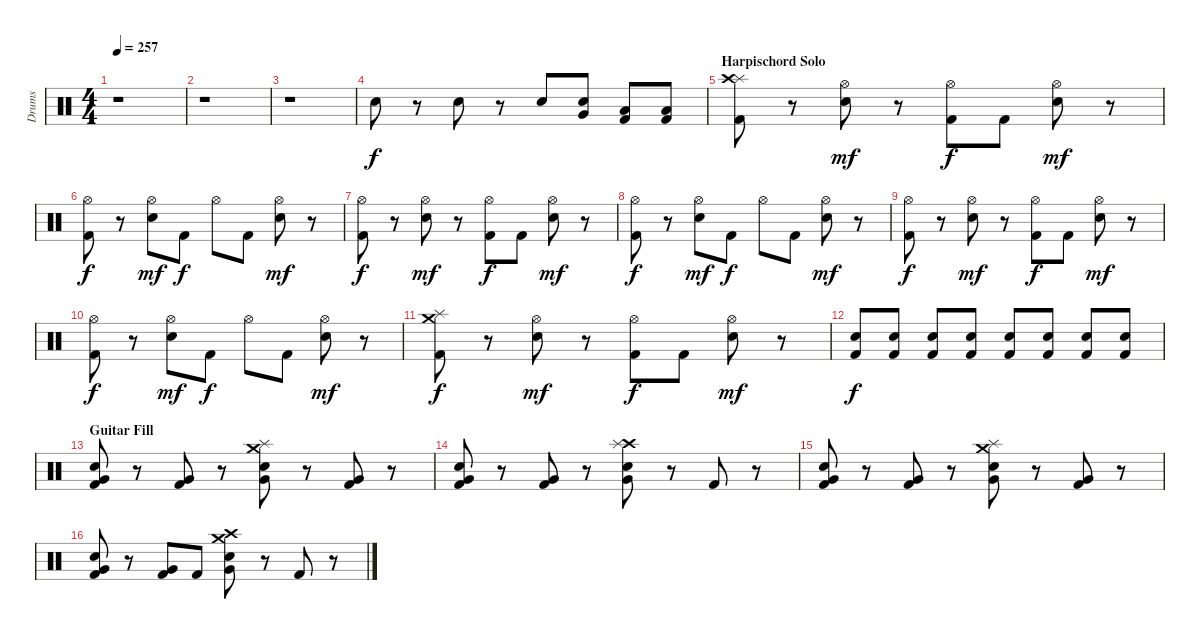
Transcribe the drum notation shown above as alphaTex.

\track ("Drums" "Drums") {instrument percussion}
\staff {score}
\articulation defaults
\ts (4 4)
\tempo 257
\clef neutral
\ks c
r.1{dy f} |
r.1 |
r.1 |
"Snare (hit) 2".8 r.8 "Snare (hit) 2".8 r.8 "Snare (hit) 2".8 ("Snare (hit) 2" "Very Low Tom (hit)").8 ("Kick (hit) 2" "Low Floor Tom (hit)").8 ("Kick (hit) 2" "Low Floor Tom (hit)").8 |
\section ("" "Harpischord Solo")
("Splash (hit)" "Crash high (hit)" "Kick (hit) 2").8 r.8 ("Snare (hit) 2" "Hi-Hat (open)").8{dy mf} r.8 ("Kick (hit) 2" "Hi-Hat (open)").8{dy f} "Kick (hit) 2".8 ("Snare (hit) 2" "Hi-Hat (open)").8{dy mf} r.8 |
("Kick (hit) 2" "Hi-Hat (open)").8{dy f} r.8 ("Snare (hit) 2" "Hi-Hat (open)").8{dy mf} "Kick (hit) 2".8{dy f} "Hi-Hat (open)".8 "Kick (hit) 2".8 ("Snare (hit) 2" "Hi-Hat (open)").8{dy mf} r.8 |
("Hi-Hat (open)" "Kick (hit) 2").8{dy f} r.8 ("Snare (hit) 2" "Hi-Hat (open)").8{dy mf} r.8 ("Kick (hit) 2" "Hi-Hat (open)").8{dy f} "Kick (hit) 2".8 ("Snare (hit) 2" "Hi-Hat (open)").8{dy mf} r.8 |
("Kick (hit) 2" "Hi-Hat (open)").8{dy f} r.8 ("Snare (hit) 2" "Hi-Hat (open)").8{dy mf} "Kick (hit) 2".8{dy f} "Hi-Hat (open)".8 "Kick (hit) 2".8 ("Snare (hit) 2" "Hi-Hat (open)").8{dy mf} r.8 |
("Hi-Hat (open)" "Kick (hit) 2").8{dy f} r.8 ("Snare (hit) 2" "Hi-Hat (open)").8{dy mf} r.8 ("Kick (hit) 2" "Hi-Hat (open)").8{dy f} "Kick (hit) 2".8 ("Snare (hit) 2" "Hi-Hat (open)").8{dy mf} r.8 |
("Kick (hit) 2" "Hi-Hat (open)").8{dy f} r.8 ("Snare (hit) 2" "Hi-Hat (open)").8{dy mf} "Kick (hit) 2".8{dy f} "Hi-Hat (open)".8 "Kick (hit) 2".8 ("Snare (hit) 2" "Hi-Hat (open)").8{dy mf} r.8 |
("Kick (hit) 2" "Splash (hit)" "Crash medium (hit)").8{dy f} r.8 ("Snare (hit) 2" "Hi-Hat (open)").8{dy mf} r.8 ("Kick (hit) 2" "Hi-Hat (open)").8{dy f} "Kick (hit) 2".8 ("Snare (hit) 2" "Hi-Hat (open)").8{dy mf} r.8 |
("Snare (hit) 2" "Kick (hit) 2").8{dy f} ("Snare (hit) 2" "Kick (hit) 2").8 ("Snare (hit) 2" "Kick (hit) 2").8 ("Snare (hit) 2" "Kick (hit) 2").8 ("Snare (hit) 2" "Kick (hit) 2").8 ("Snare (hit) 2" "Kick (hit) 2").8 ("Snare (hit) 2" "Kick (hit) 2").8 ("Snare (hit) 2" "Kick (hit) 2").8 |
\section ("" "Guitar Fill")
("Kick (hit) 2" "Very Low Tom (hit)" "Snare (hit) 2").8 r.8 ("Very Low Tom (hit)" "Kick (hit) 2").8 r.8 ("Splash (hit)" "Snare (hit) 2" "Crash medium (hit)" "Very Low Tom (hit)").8 r.8 ("Very Low Tom (hit)" "Kick (hit) 2").8 r.8 |
("Kick (hit) 2" "Very Low Tom (hit)" "Snare (hit) 2").8 r.8 ("Very Low Tom (hit)" "Kick (hit) 2").8 r.8 ("Crash high (hit)" "Snare (hit) 2" "Splash (hit)" "Very Low Tom (hit)").8 r.8 "Kick (hit) 2".8 r.8 |
("Kick (hit) 2" "Very Low Tom (hit)" "Snare (hit) 2").8 r.8 ("Very Low Tom (hit)" "Kick (hit) 2").8 r.8 ("Splash (hit)" "Snare (hit) 2" "Crash medium (hit)" "Very Low Tom (hit)").8 r.8 ("Very Low Tom (hit)" "Kick (hit) 2").8 r.8 |
("Kick (hit) 2" "Very Low Tom (hit)" "Snare (hit) 2").8 r.8 ("Very Low Tom (hit)" "Kick (hit) 2").8 "Kick (hit) 2".8 ("Snare (hit) 2" "Crash medium (hit)" "Very Low Tom (hit)" "Crash high (hit)").8 r.8 "Kick (hit) 2".8 r.8
